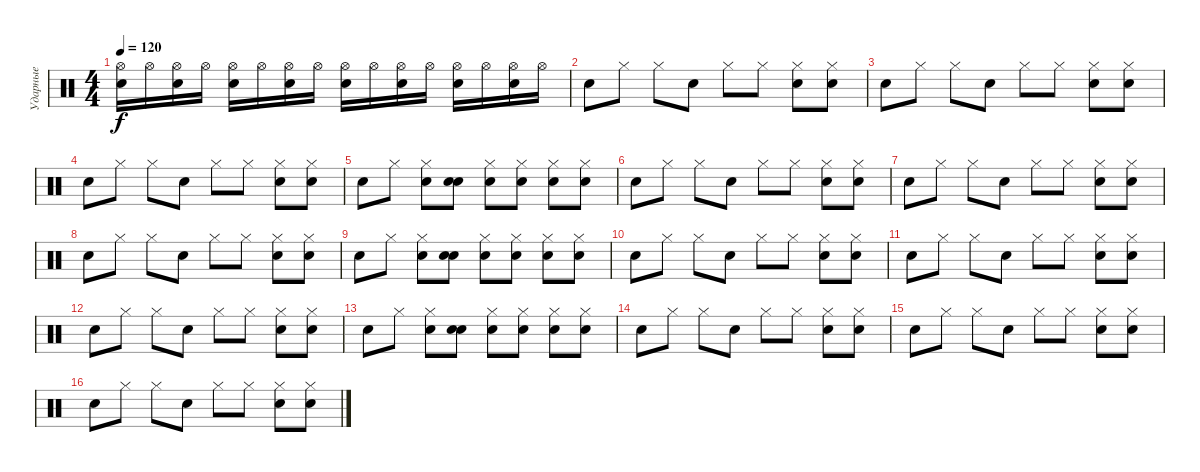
\track ("Ударные" "Ударные") {instrument percussion}
\staff {score}
\articulation defaults
\ts (4 4)
\tempo 120
\clef neutral
\ks c
("Electric Snare (hit)" "Hi-Hat (open)").16{dy f} "Hi-Hat (open)".16 ("Electric Snare (hit)" "Hi-Hat (open)").16 "Hi-Hat (open)".16 ("Electric Snare (hit)" "Hi-Hat (open)").16 "Hi-Hat (open)".16 ("Electric Snare (hit)" "Hi-Hat (open)").16 "Hi-Hat (open)".16 ("Electric Snare (hit)" "Hi-Hat (open)").16 "Hi-Hat (open)".16 ("Electric Snare (hit)" "Hi-Hat (open)").16 "Hi-Hat (open)".16 ("Electric Snare (hit)" "Hi-Hat (open)").16 "Hi-Hat (open)".16 ("Electric Snare (hit)" "Hi-Hat (open)").16 "Hi-Hat (open)".16 |
"Electric Snare (hit)".8 "Hi-Hat (closed)".8 "Hi-Hat (closed)".8 "Electric Snare (hit)".8 "Hi-Hat (closed)".8 "Hi-Hat (closed)".8 ("Hi-Hat (closed)" "Electric Snare (hit)").8 ("Hi-Hat (closed)" "Electric Snare (hit)").8 |
"Electric Snare (hit)".8 "Hi-Hat (closed)".8 "Hi-Hat (closed)".8 "Electric Snare (hit)".8 "Hi-Hat (closed)".8 "Hi-Hat (closed)".8 ("Hi-Hat (closed)" "Electric Snare (hit)").8 ("Hi-Hat (closed)" "Electric Snare (hit)").8 |
"Electric Snare (hit)".8 "Hi-Hat (closed)".8 "Hi-Hat (closed)".8 "Electric Snare (hit)".8 "Hi-Hat (closed)".8 "Hi-Hat (closed)".8 ("Hi-Hat (closed)" "Electric Snare (hit)").8 ("Hi-Hat (closed)" "Electric Snare (hit)").8 |
"Electric Snare (hit)".8 "Hi-Hat (closed)".8 ("Hi-Hat (closed)" "Electric Snare (hit)").8 ("Electric Snare (hit)" "Electric Snare (hit)").8 ("Hi-Hat (closed)" "Electric Snare (hit)").8 ("Hi-Hat (closed)" "Electric Snare (hit)").8 ("Hi-Hat (closed)" "Electric Snare (hit)").8 ("Hi-Hat (closed)" "Electric Snare (hit)").8 |
"Electric Snare (hit)".8 "Hi-Hat (closed)".8 "Hi-Hat (closed)".8 "Electric Snare (hit)".8 "Hi-Hat (closed)".8 "Hi-Hat (closed)".8 ("Hi-Hat (closed)" "Electric Snare (hit)").8 ("Hi-Hat (closed)" "Electric Snare (hit)").8 |
"Electric Snare (hit)".8 "Hi-Hat (closed)".8 "Hi-Hat (closed)".8 "Electric Snare (hit)".8 "Hi-Hat (closed)".8 "Hi-Hat (closed)".8 ("Hi-Hat (closed)" "Electric Snare (hit)").8 ("Hi-Hat (closed)" "Electric Snare (hit)").8 |
"Electric Snare (hit)".8 "Hi-Hat (closed)".8 "Hi-Hat (closed)".8 "Electric Snare (hit)".8 "Hi-Hat (closed)".8 "Hi-Hat (closed)".8 ("Hi-Hat (closed)" "Electric Snare (hit)").8 ("Hi-Hat (closed)" "Electric Snare (hit)").8 |
"Electric Snare (hit)".8 "Hi-Hat (closed)".8 ("Hi-Hat (closed)" "Electric Snare (hit)").8 ("Electric Snare (hit)" "Electric Snare (hit)").8 ("Hi-Hat (closed)" "Electric Snare (hit)").8 ("Hi-Hat (closed)" "Electric Snare (hit)").8 ("Hi-Hat (closed)" "Electric Snare (hit)").8 ("Hi-Hat (closed)" "Electric Snare (hit)").8 |
"Electric Snare (hit)".8 "Hi-Hat (closed)".8 "Hi-Hat (closed)".8 "Electric Snare (hit)".8 "Hi-Hat (closed)".8 "Hi-Hat (closed)".8 ("Hi-Hat (closed)" "Electric Snare (hit)").8 ("Hi-Hat (closed)" "Electric Snare (hit)").8 |
"Electric Snare (hit)".8 "Hi-Hat (closed)".8 "Hi-Hat (closed)".8 "Electric Snare (hit)".8 "Hi-Hat (closed)".8 "Hi-Hat (closed)".8 ("Hi-Hat (closed)" "Electric Snare (hit)").8 ("Hi-Hat (closed)" "Electric Snare (hit)").8 |
"Electric Snare (hit)".8 "Hi-Hat (closed)".8 "Hi-Hat (closed)".8 "Electric Snare (hit)".8 "Hi-Hat (closed)".8 "Hi-Hat (closed)".8 ("Hi-Hat (closed)" "Electric Snare (hit)").8 ("Hi-Hat (closed)" "Electric Snare (hit)").8 |
"Electric Snare (hit)".8 "Hi-Hat (closed)".8 ("Hi-Hat (closed)" "Electric Snare (hit)").8 ("Electric Snare (hit)" "Electric Snare (hit)").8 ("Hi-Hat (closed)" "Electric Snare (hit)").8 ("Hi-Hat (closed)" "Electric Snare (hit)").8 ("Hi-Hat (closed)" "Electric Snare (hit)").8 ("Hi-Hat (closed)" "Electric Snare (hit)").8 |
"Electric Snare (hit)".8 "Hi-Hat (closed)".8 "Hi-Hat (closed)".8 "Electric Snare (hit)".8 "Hi-Hat (closed)".8 "Hi-Hat (closed)".8 ("Hi-Hat (closed)" "Electric Snare (hit)").8 ("Hi-Hat (closed)" "Electric Snare (hit)").8 |
"Electric Snare (hit)".8 "Hi-Hat (closed)".8 "Hi-Hat (closed)".8 "Electric Snare (hit)".8 "Hi-Hat (closed)".8 "Hi-Hat (closed)".8 ("Hi-Hat (closed)" "Electric Snare (hit)").8 ("Hi-Hat (closed)" "Electric Snare (hit)").8 |
"Electric Snare (hit)".8 "Hi-Hat (closed)".8 "Hi-Hat (closed)".8 "Electric Snare (hit)".8 "Hi-Hat (closed)".8 "Hi-Hat (closed)".8 ("Hi-Hat (closed)" "Electric Snare (hit)").8 ("Hi-Hat (closed)" "Electric Snare (hit)").8
